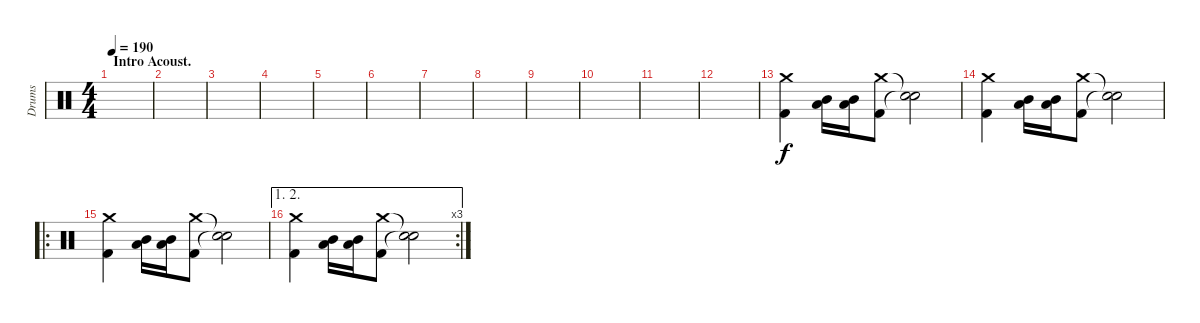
\track ("Drums" "Drums") {instrument percussion}
\staff {score}
\articulation defaults
\ts (4 4)
\section ("" "Intro Acoust.")
\tempo 190
\tempo 75
\tempo 190
\clef neutral
\ks c
|
|
|
|
|
|
|
|
|
|
|
|
("Crash medium (hit)" "Kick (hit) 2").4 ("Low Tom (hit)" "Mid Tom (hit)").16{bd 30} ("Low Tom (hit)" "Mid Tom (hit)").16{bu 30} ("Crash medium (hit)" "Kick (hit) 2").8 ("Snare (hit)"{t} "Snare (hit)"{t}).2 |
("Crash medium (hit)" "Kick (hit) 2").4 ("Low Tom (hit)" "Mid Tom (hit)").16{bu 30} ("Low Tom (hit)" "Mid Tom (hit)").16{bd 30} ("Crash medium (hit)" "Kick (hit) 2").8 ("Snare (hit)"{t} "Snare (hit)"{t}).2 |
\ro
("Crash medium (hit)" "Kick (hit) 2").4 ("Low Tom (hit)" "Mid Tom (hit)").16{bd 30} ("Low Tom (hit)" "Mid Tom (hit)").16{bd 30} ("Crash medium (hit)" "Kick (hit) 2").8 ("Snare (hit)"{t} "Snare (hit)"{t}).2 |
\ae (1 2)
\rc 3
("Crash medium (hit)" "Kick (hit) 2").4 ("Low Tom (hit)" "Mid Tom (hit)").16{bu 30} ("Low Tom (hit)" "Mid Tom (hit)").16{bu 30} ("Crash medium (hit)" "Kick (hit) 2").8 ("Snare (hit)"{t} "Snare (hit)"{t}).2
